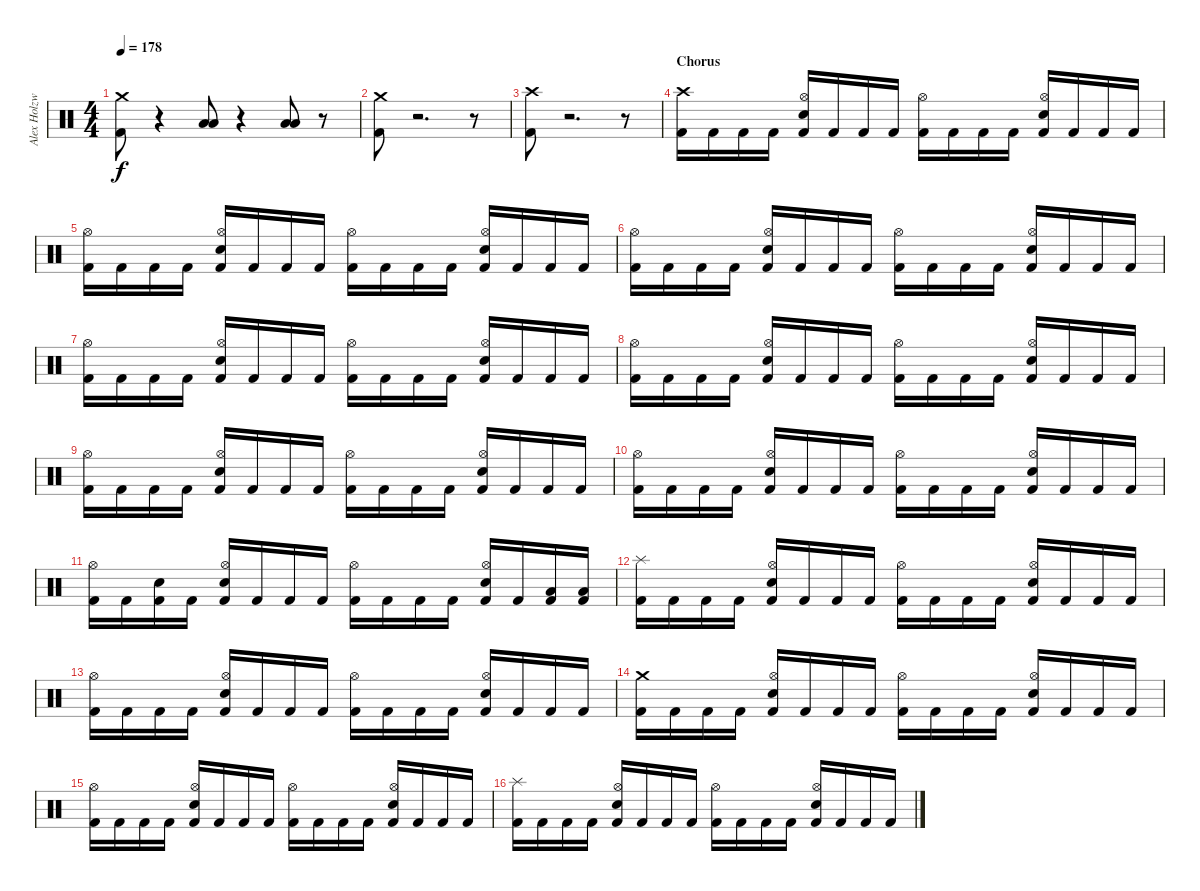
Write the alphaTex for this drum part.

\track ("Alex Holzwarth" "Alex Holzw") {instrument percussion}
\staff {score}
\articulation defaults
\ts (4 4)
\tempo 178
\clef neutral
\ks c
("Crash medium (hit)" "Kick (hit) 2").8{dy f} r.4 ("Low Tom (hit)" "Low Tom (hit)").8 r.4 ("Low Floor Tom (hit)" "Low Floor Tom (hit)").8 r.8 |
("Crash medium (hit)" "Kick (hit) 2").8 r.2{d} r.8 |
("Crash high (hit)" "Kick (hit) 2").8 r.2{d} r.8 |
\section ("" "Chorus")
("Crash high (hit)" "Kick (hit) 2").16 "Kick (hit) 2".16 "Kick (hit) 2".16 "Kick (hit) 2".16 ("Hi-Hat (open)" "Snare (hit) 2" "Kick (hit) 2").16 "Kick (hit) 2".16 "Kick (hit) 2".16 "Kick (hit) 2".16 ("Hi-Hat (open)" "Kick (hit) 2").16 "Kick (hit) 2".16 "Kick (hit) 2".16 "Kick (hit) 2".16 ("Hi-Hat (open)" "Snare (hit) 2" "Kick (hit) 2").16 "Kick (hit) 2".16 "Kick (hit) 2".16 "Kick (hit) 2".16 |
("Hi-Hat (open)" "Kick (hit) 2").16 "Kick (hit) 2".16 "Kick (hit) 2".16 "Kick (hit) 2".16 ("Hi-Hat (open)" "Snare (hit) 2" "Kick (hit) 2").16 "Kick (hit) 2".16 "Kick (hit) 2".16 "Kick (hit) 2".16 ("Hi-Hat (open)" "Kick (hit) 2").16 "Kick (hit) 2".16 "Kick (hit) 2".16 "Kick (hit) 2".16 ("Hi-Hat (open)" "Snare (hit) 2" "Kick (hit) 2").16 "Kick (hit) 2".16 "Kick (hit) 2".16 "Kick (hit) 2".16 |
("Hi-Hat (open)" "Kick (hit) 2").16 "Kick (hit) 2".16 "Kick (hit) 2".16 "Kick (hit) 2".16 ("Hi-Hat (open)" "Snare (hit) 2" "Kick (hit) 2").16 "Kick (hit) 2".16 "Kick (hit) 2".16 "Kick (hit) 2".16 ("Hi-Hat (open)" "Kick (hit) 2").16 "Kick (hit) 2".16 "Kick (hit) 2".16 "Kick (hit) 2".16 ("Hi-Hat (open)" "Snare (hit) 2" "Kick (hit) 2").16 "Kick (hit) 2".16 "Kick (hit) 2".16 "Kick (hit) 2".16 |
("Hi-Hat (open)" "Kick (hit) 2").16 "Kick (hit) 2".16 "Kick (hit) 2".16 "Kick (hit) 2".16 ("Hi-Hat (open)" "Snare (hit) 2" "Kick (hit) 2").16 "Kick (hit) 2".16 "Kick (hit) 2".16 "Kick (hit) 2".16 ("Hi-Hat (open)" "Kick (hit) 2").16 "Kick (hit) 2".16 "Kick (hit) 2".16 "Kick (hit) 2".16 ("Hi-Hat (open)" "Snare (hit) 2" "Kick (hit) 2").16 "Kick (hit) 2".16 "Kick (hit) 2".16 "Kick (hit) 2".16 |
("Hi-Hat (open)" "Kick (hit) 2").16 "Kick (hit) 2".16 "Kick (hit) 2".16 "Kick (hit) 2".16 ("Hi-Hat (open)" "Snare (hit) 2" "Kick (hit) 2").16 "Kick (hit) 2".16 "Kick (hit) 2".16 "Kick (hit) 2".16 ("Hi-Hat (open)" "Kick (hit) 2").16 "Kick (hit) 2".16 "Kick (hit) 2".16 "Kick (hit) 2".16 ("Hi-Hat (open)" "Snare (hit) 2" "Kick (hit) 2").16 "Kick (hit) 2".16 "Kick (hit) 2".16 "Kick (hit) 2".16 |
("Hi-Hat (open)" "Kick (hit) 2").16 "Kick (hit) 2".16 "Kick (hit) 2".16 "Kick (hit) 2".16 ("Hi-Hat (open)" "Snare (hit) 2" "Kick (hit) 2").16 "Kick (hit) 2".16 "Kick (hit) 2".16 "Kick (hit) 2".16 ("Hi-Hat (open)" "Kick (hit) 2").16 "Kick (hit) 2".16 "Kick (hit) 2".16 "Kick (hit) 2".16 ("Hi-Hat (open)" "Snare (hit) 2" "Kick (hit) 2").16 "Kick (hit) 2".16 "Kick (hit) 2".16 "Kick (hit) 2".16 |
("Hi-Hat (open)" "Kick (hit) 2").16 "Kick (hit) 2".16 "Kick (hit) 2".16 "Kick (hit) 2".16 ("Hi-Hat (open)" "Snare (hit) 2" "Kick (hit) 2").16 "Kick (hit) 2".16 "Kick (hit) 2".16 "Kick (hit) 2".16 ("Hi-Hat (open)" "Kick (hit) 2").16 "Kick (hit) 2".16 "Kick (hit) 2".16 "Kick (hit) 2".16 ("Hi-Hat (open)" "Snare (hit) 2" "Kick (hit) 2").16 "Kick (hit) 2".16 "Kick (hit) 2".16 "Kick (hit) 2".16 |
("Hi-Hat (open)" "Kick (hit) 2").16 "Kick (hit) 2".16 ("Snare (hit) 2" "Kick (hit) 2").16 "Kick (hit) 2".16 ("Hi-Hat (open)" "Snare (hit) 2" "Kick (hit) 2").16 "Kick (hit) 2".16 "Kick (hit) 2".16 "Kick (hit) 2".16 ("Hi-Hat (open)" "Kick (hit) 2").16 "Kick (hit) 2".16 "Kick (hit) 2".16 "Kick (hit) 2".16 ("Hi-Hat (open)" "Snare (hit) 2" "Kick (hit) 2").16 "Kick (hit) 2".16 ("Low Tom (hit)" "Kick (hit) 2").16 ("Low Tom (hit)" "Kick (hit) 2").16 |
("Splash (hit)" "Kick (hit) 2").16 "Kick (hit) 2".16 "Kick (hit) 2".16 "Kick (hit) 2".16 ("Hi-Hat (open)" "Snare (hit) 2" "Kick (hit) 2").16 "Kick (hit) 2".16 "Kick (hit) 2".16 "Kick (hit) 2".16 ("Hi-Hat (open)" "Kick (hit) 2").16 "Kick (hit) 2".16 "Kick (hit) 2".16 "Kick (hit) 2".16 ("Hi-Hat (open)" "Snare (hit) 2" "Kick (hit) 2").16 "Kick (hit) 2".16 "Kick (hit) 2".16 "Kick (hit) 2".16 |
("Hi-Hat (open)" "Kick (hit) 2").16 "Kick (hit) 2".16 "Kick (hit) 2".16 "Kick (hit) 2".16 ("Hi-Hat (open)" "Snare (hit) 2" "Kick (hit) 2").16 "Kick (hit) 2".16 "Kick (hit) 2".16 "Kick (hit) 2".16 ("Hi-Hat (open)" "Kick (hit) 2").16 "Kick (hit) 2".16 "Kick (hit) 2".16 "Kick (hit) 2".16 ("Hi-Hat (open)" "Snare (hit) 2" "Kick (hit) 2").16 "Kick (hit) 2".16 "Kick (hit) 2".16 "Kick (hit) 2".16 |
("Crash medium (hit)" "Kick (hit) 2").16 "Kick (hit) 2".16 "Kick (hit) 2".16 "Kick (hit) 2".16 ("Hi-Hat (open)" "Snare (hit) 2" "Kick (hit) 2").16 "Kick (hit) 2".16 "Kick (hit) 2".16 "Kick (hit) 2".16 ("Hi-Hat (open)" "Kick (hit) 2").16 "Kick (hit) 2".16 "Kick (hit) 2".16 "Kick (hit) 2".16 ("Hi-Hat (open)" "Snare (hit) 2" "Kick (hit) 2").16 "Kick (hit) 2".16 "Kick (hit) 2".16 "Kick (hit) 2".16 |
("Hi-Hat (open)" "Kick (hit) 2").16 "Kick (hit) 2".16 "Kick (hit) 2".16 "Kick (hit) 2".16 ("Hi-Hat (open)" "Snare (hit) 2" "Kick (hit) 2").16 "Kick (hit) 2".16 "Kick (hit) 2".16 "Kick (hit) 2".16 ("Hi-Hat (open)" "Kick (hit) 2").16 "Kick (hit) 2".16 "Kick (hit) 2".16 "Kick (hit) 2".16 ("Hi-Hat (open)" "Snare (hit) 2" "Kick (hit) 2").16 "Kick (hit) 2".16 "Kick (hit) 2".16 "Kick (hit) 2".16 |
("Splash (hit)" "Kick (hit) 2").16 "Kick (hit) 2".16 "Kick (hit) 2".16 "Kick (hit) 2".16 ("Hi-Hat (open)" "Snare (hit) 2" "Kick (hit) 2").16 "Kick (hit) 2".16 "Kick (hit) 2".16 "Kick (hit) 2".16 ("Hi-Hat (open)" "Kick (hit) 2").16 "Kick (hit) 2".16 "Kick (hit) 2".16 "Kick (hit) 2".16 ("Hi-Hat (open)" "Snare (hit) 2" "Kick (hit) 2").16 "Kick (hit) 2".16 "Kick (hit) 2".16 "Kick (hit) 2".16
